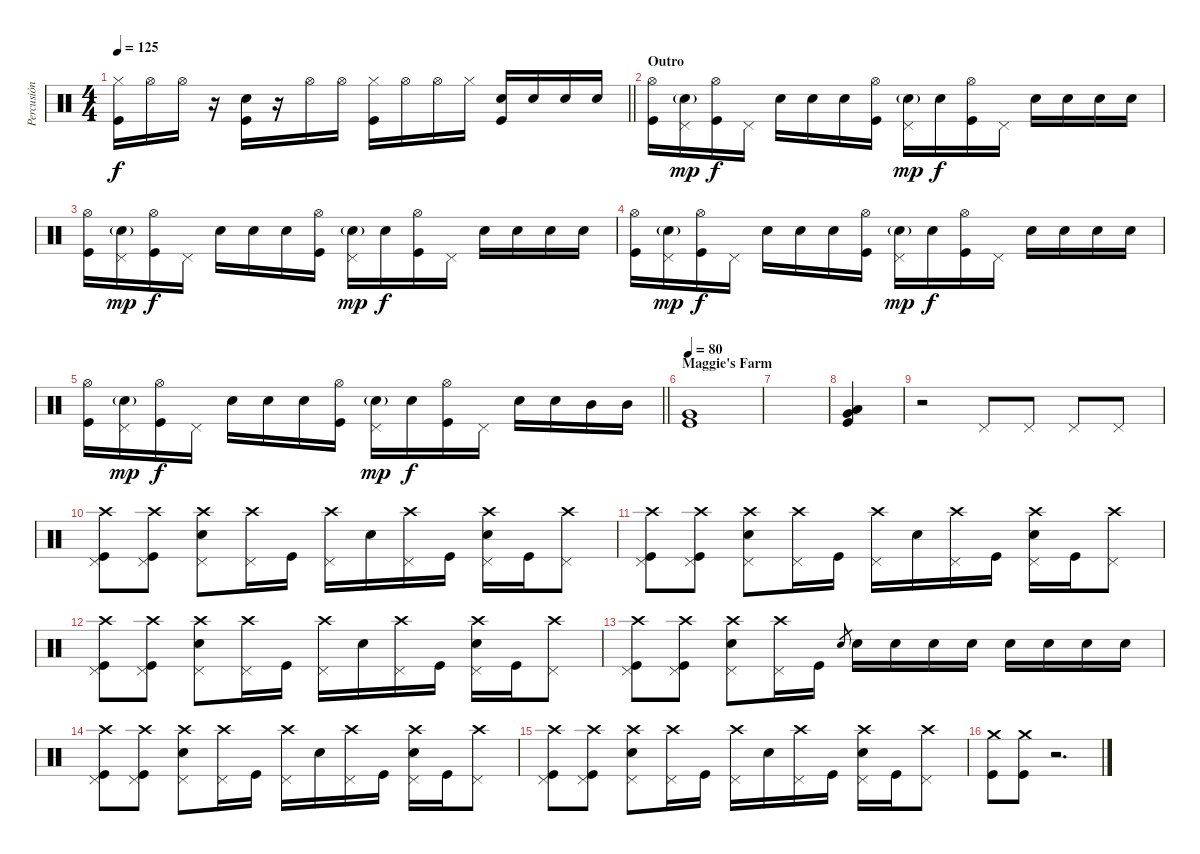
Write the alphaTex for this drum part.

\track ("Percusión" "Percusión") {instrument percussion}
\staff {score}
\articulation defaults
\ts (4 4)
\tempo 125
\clef neutral
\barLineRight lightlight
\ks c
("Hi-Hat (closed)" "Kick (hit)").16{dy f} "Hi-Hat (open)".16 "Hi-Hat (open)".16 r.16 ("Snare (hit) 2" "Kick (hit)").16 r.16 "Hi-Hat (open)".16 "Hi-Hat (open)".16 ("Hi-Hat (closed)" "Kick (hit)").16 "Hi-Hat (open)".16 "Hi-Hat (open)".16 "Hi-Hat (closed)".16 ("Snare (hit) 2" "Kick (hit)").16 "Snare (hit) 2".16 "Snare (hit) 2".16 "Snare (hit) 2".16 |
\section ("" "Outro")
("Hi-Hat (open)" "Kick (hit)").16 ("Snare (hit) 2"{g} "Pedal Hi-Hat (hit)").16{dy mp} ("Hi-Hat (open)" "Kick (hit)").16{dy f} "Pedal Hi-Hat (hit)".16 "Snare (hit) 2".16 "Snare (hit) 2".16 "Snare (hit) 2".16 ("Hi-Hat (open)" "Kick (hit)").16 ("Snare (hit) 2"{g} "Pedal Hi-Hat (hit)").16{dy mp} "Snare (hit) 2".16{dy f} ("Hi-Hat (open)" "Kick (hit)").16 "Pedal Hi-Hat (hit)".16 "Snare (hit) 2".16 "Snare (hit) 2".16 "Snare (hit) 2".16 "Snare (hit) 2".16 |
("Hi-Hat (open)" "Kick (hit)").16 ("Snare (hit) 2"{g} "Pedal Hi-Hat (hit)").16{dy mp} ("Hi-Hat (open)" "Kick (hit)").16{dy f} "Pedal Hi-Hat (hit)".16 "Snare (hit) 2".16 "Snare (hit) 2".16 "Snare (hit) 2".16 ("Hi-Hat (open)" "Kick (hit)").16 ("Snare (hit) 2"{g} "Pedal Hi-Hat (hit)").16{dy mp} "Snare (hit) 2".16{dy f} ("Hi-Hat (open)" "Kick (hit)").16 "Pedal Hi-Hat (hit)".16 "Snare (hit) 2".16 "Snare (hit) 2".16 "Snare (hit) 2".16 "Snare (hit) 2".16 |
("Hi-Hat (open)" "Kick (hit)").16 ("Snare (hit) 2"{g} "Pedal Hi-Hat (hit)").16{dy mp} ("Hi-Hat (open)" "Kick (hit)").16{dy f} "Pedal Hi-Hat (hit)".16 "Snare (hit) 2".16 "Snare (hit) 2".16 "Snare (hit) 2".16 ("Hi-Hat (open)" "Kick (hit)").16 ("Snare (hit) 2"{g} "Pedal Hi-Hat (hit)").16{dy mp} "Snare (hit) 2".16{dy f} ("Hi-Hat (open)" "Kick (hit)").16 "Pedal Hi-Hat (hit)".16 "Snare (hit) 2".16 "Snare (hit) 2".16 "Snare (hit) 2".16 "Snare (hit) 2".16 |
\barLineRight lightlight
("Hi-Hat (open)" "Kick (hit)").16 ("Snare (hit) 2"{g} "Pedal Hi-Hat (hit)").16{dy mp} ("Hi-Hat (open)" "Kick (hit)").16{dy f} "Pedal Hi-Hat (hit)".16 "Snare (hit) 2".16 "Snare (hit) 2".16 "Snare (hit) 2".16 ("Hi-Hat (open)" "Kick (hit)").16 ("Snare (hit) 2"{g} "Pedal Hi-Hat (hit)").16{dy mp} "Snare (hit) 2".16{dy f} ("Hi-Hat (open)" "Kick (hit)").16 "Pedal Hi-Hat (hit)".16 "Snare (hit) 2".16 "Snare (hit) 2".16 "Mid Tom (hit)".16 "Mid Tom (hit)".16 |
\section ("" "Maggie's Farm")
\tempo 80
("Very Low Tom (hit)" "Kick (hit)").1 |
|
("Very Low Tom (hit)" "Low Floor Tom (hit)" "Kick (hit)").4 |
r.2 "Pedal Hi-Hat (hit)".8 "Pedal Hi-Hat (hit)".8 "Pedal Hi-Hat (hit)".8 "Pedal Hi-Hat (hit)".8 |
("Crash high (hit)" "Pedal Hi-Hat (hit)" "Kick (hit)").8 ("Crash high (hit)" "Pedal Hi-Hat (hit)" "Kick (hit)").8 ("Crash high (hit)" "Snare (hit) 2" "Pedal Hi-Hat (hit)").8 ("Crash high (hit)" "Pedal Hi-Hat (hit)").16 "Kick (hit)".16 ("Crash high (hit)" "Pedal Hi-Hat (hit)").16 "Snare (hit) 2".16 ("Crash high (hit)" "Pedal Hi-Hat (hit)").16 "Kick (hit)".16 ("Crash high (hit)" "Snare (hit) 2" "Pedal Hi-Hat (hit)").16 "Kick (hit)".16 ("Crash high (hit)" "Pedal Hi-Hat (hit)").8 |
("Crash high (hit)" "Pedal Hi-Hat (hit)" "Kick (hit)").8 ("Crash high (hit)" "Pedal Hi-Hat (hit)" "Kick (hit)").8 ("Crash high (hit)" "Snare (hit) 2" "Pedal Hi-Hat (hit)").8 ("Crash high (hit)" "Pedal Hi-Hat (hit)").16 "Kick (hit)".16 ("Crash high (hit)" "Pedal Hi-Hat (hit)").16 "Snare (hit) 2".16 ("Crash high (hit)" "Pedal Hi-Hat (hit)").16 "Kick (hit)".16 ("Crash high (hit)" "Snare (hit) 2" "Pedal Hi-Hat (hit)").16 "Kick (hit)".16 ("Crash high (hit)" "Pedal Hi-Hat (hit)").8 |
("Crash high (hit)" "Pedal Hi-Hat (hit)" "Kick (hit)").8 ("Crash high (hit)" "Pedal Hi-Hat (hit)" "Kick (hit)").8 ("Crash high (hit)" "Snare (hit) 2" "Pedal Hi-Hat (hit)").8 ("Crash high (hit)" "Pedal Hi-Hat (hit)").16 "Kick (hit)".16 ("Crash high (hit)" "Pedal Hi-Hat (hit)").16 "Snare (hit) 2".16 ("Crash high (hit)" "Pedal Hi-Hat (hit)").16 "Kick (hit)".16 ("Crash high (hit)" "Snare (hit) 2" "Pedal Hi-Hat (hit)").16 "Kick (hit)".16 ("Crash high (hit)" "Pedal Hi-Hat (hit)").8 |
("Crash high (hit)" "Pedal Hi-Hat (hit)" "Kick (hit)").8 ("Crash high (hit)" "Pedal Hi-Hat (hit)" "Kick (hit)").8 ("Crash high (hit)" "Snare (hit) 2" "Pedal Hi-Hat (hit)").8 ("Crash high (hit)" "Pedal Hi-Hat (hit)").16 "Kick (hit)".16 "Snare (hit) 2".8{gr} "Snare (hit) 2".16 "Snare (hit) 2".16 "Snare (hit) 2".16 "Snare (hit) 2".16 "Snare (hit) 2".16 "Snare (hit) 2".16 "Snare (hit) 2".16 "Snare (hit) 2".16 |
("Crash high (hit)" "Pedal Hi-Hat (hit)" "Kick (hit)").8 ("Crash high (hit)" "Pedal Hi-Hat (hit)" "Kick (hit)").8 ("Crash high (hit)" "Snare (hit) 2" "Pedal Hi-Hat (hit)").8 ("Crash high (hit)" "Pedal Hi-Hat (hit)").16 "Kick (hit)".16 ("Crash high (hit)" "Pedal Hi-Hat (hit)").16 "Snare (hit) 2".16 ("Crash high (hit)" "Pedal Hi-Hat (hit)").16 "Kick (hit)".16 ("Crash high (hit)" "Snare (hit) 2" "Pedal Hi-Hat (hit)").16 "Kick (hit)".16 ("Crash high (hit)" "Pedal Hi-Hat (hit)").8 |
("Crash high (hit)" "Pedal Hi-Hat (hit)" "Kick (hit)").8 ("Crash high (hit)" "Pedal Hi-Hat (hit)" "Kick (hit)").8 ("Crash high (hit)" "Snare (hit) 2" "Pedal Hi-Hat (hit)").8 ("Crash high (hit)" "Pedal Hi-Hat (hit)").16 "Kick (hit)".16 ("Crash high (hit)" "Pedal Hi-Hat (hit)").16 "Snare (hit) 2".16 ("Crash high (hit)" "Pedal Hi-Hat (hit)").16 "Kick (hit)".16 ("Crash high (hit)" "Snare (hit) 2" "Pedal Hi-Hat (hit)").16 "Kick (hit)".16 ("Crash high (hit)" "Pedal Hi-Hat (hit)").8 |
("Crash medium (hit)" "Kick (hit)").8 ("Crash medium (hit)" "Kick (hit)").8 r.2{d}
